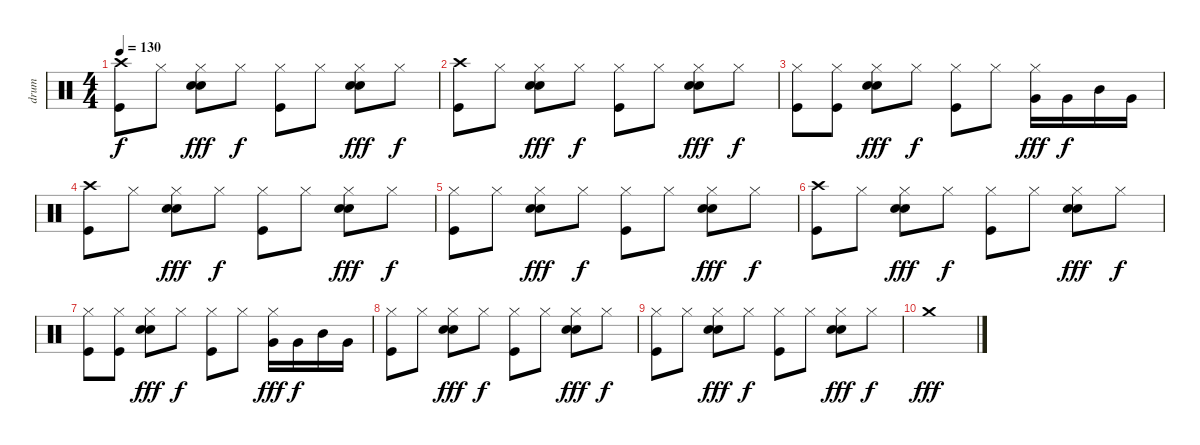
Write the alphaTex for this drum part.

\track ("drum" "drum") {instrument percussion}
\staff {score}
\articulation defaults
\ts (4 4)
\tempo 130
\clef neutral
\ks c
("Crash high (hit)" "Kick (hit)").8{dy f} "Hi-Hat (closed)".8 ("Hi-Hat (closed)" "Snare (hit) 2" "Snare (hit) 2").8{dy fff} "Hi-Hat (closed)".8{dy f} ("Hi-Hat (closed)" "Kick (hit)").8 "Hi-Hat (closed)".8 ("Hi-Hat (closed)" "Snare (hit) 2" "Snare (hit) 2").8{dy fff} "Hi-Hat (closed)".8{dy f} |
("Crash high (hit)" "Kick (hit)").8 "Hi-Hat (closed)".8 ("Hi-Hat (closed)" "Snare (hit) 2" "Snare (hit) 2").8{dy fff} "Hi-Hat (closed)".8{dy f} ("Hi-Hat (closed)" "Kick (hit)").8 "Hi-Hat (closed)".8 ("Hi-Hat (closed)" "Snare (hit) 2" "Snare (hit) 2").8{dy fff} "Hi-Hat (closed)".8{dy f} |
("Hi-Hat (closed)" "Kick (hit)").8 ("Hi-Hat (closed)" "Kick (hit)").8 ("Hi-Hat (closed)" "Snare (hit) 2" "Snare (hit) 2").8{dy fff} "Hi-Hat (closed)".8{dy f} ("Hi-Hat (closed)" "Kick (hit)").8 "Hi-Hat (closed)".8 ("Hi-Hat (closed)" "Very Low Tom (hit)").16{dy fff} "Very Low Tom (hit)".16{dy f} "Mid Tom (hit)".16 "Very Low Tom (hit)".16 |
("Crash high (hit)" "Kick (hit)").8 "Hi-Hat (closed)".8 ("Hi-Hat (closed)" "Snare (hit) 2" "Snare (hit) 2").8{dy fff} "Hi-Hat (closed)".8{dy f} ("Hi-Hat (closed)" "Kick (hit)").8 "Hi-Hat (closed)".8 ("Hi-Hat (closed)" "Snare (hit) 2" "Snare (hit) 2").8{dy fff} "Hi-Hat (closed)".8{dy f} |
("Hi-Hat (closed)" "Kick (hit)").8 "Hi-Hat (closed)".8 ("Hi-Hat (closed)" "Snare (hit) 2" "Snare (hit) 2").8{dy fff} "Hi-Hat (closed)".8{dy f} ("Hi-Hat (closed)" "Kick (hit)").8 "Hi-Hat (closed)".8 ("Hi-Hat (closed)" "Snare (hit) 2" "Snare (hit) 2").8{dy fff} "Hi-Hat (closed)".8{dy f} |
("Crash high (hit)" "Kick (hit)").8 "Hi-Hat (closed)".8 ("Hi-Hat (closed)" "Snare (hit) 2" "Snare (hit) 2").8{dy fff} "Hi-Hat (closed)".8{dy f} ("Hi-Hat (closed)" "Kick (hit)").8 "Hi-Hat (closed)".8 ("Hi-Hat (closed)" "Snare (hit) 2" "Snare (hit) 2").8{dy fff} "Hi-Hat (closed)".8{dy f} |
("Hi-Hat (closed)" "Kick (hit)").8 ("Hi-Hat (closed)" "Kick (hit)").8 ("Hi-Hat (closed)" "Snare (hit) 2" "Snare (hit) 2").8{dy fff} "Hi-Hat (closed)".8{dy f} ("Hi-Hat (closed)" "Kick (hit)").8 "Hi-Hat (closed)".8 ("Hi-Hat (closed)" "Very Low Tom (hit)").16{dy fff} "Very Low Tom (hit)".16{dy f} "Mid Tom (hit)".16 "Very Low Tom (hit)".16 |
("Hi-Hat (closed)" "Kick (hit)").8 "Hi-Hat (closed)".8 ("Hi-Hat (closed)" "Snare (hit) 2" "Snare (hit) 2").8{dy fff} "Hi-Hat (closed)".8{dy f} ("Hi-Hat (closed)" "Kick (hit)").8 "Hi-Hat (closed)".8 ("Hi-Hat (closed)" "Snare (hit) 2" "Snare (hit) 2").8{dy fff} "Hi-Hat (closed)".8{dy f} |
("Hi-Hat (closed)" "Kick (hit)").8 "Hi-Hat (closed)".8 ("Hi-Hat (closed)" "Snare (hit) 2" "Snare (hit) 2").8{dy fff} "Hi-Hat (closed)".8{dy f} ("Hi-Hat (closed)" "Kick (hit)").8 "Hi-Hat (closed)".8 ("Hi-Hat (closed)" "Snare (hit) 2" "Snare (hit) 2").8{dy fff} "Hi-Hat (closed)".8{dy f} |
"Crash medium (hit)".1{dy fff}
